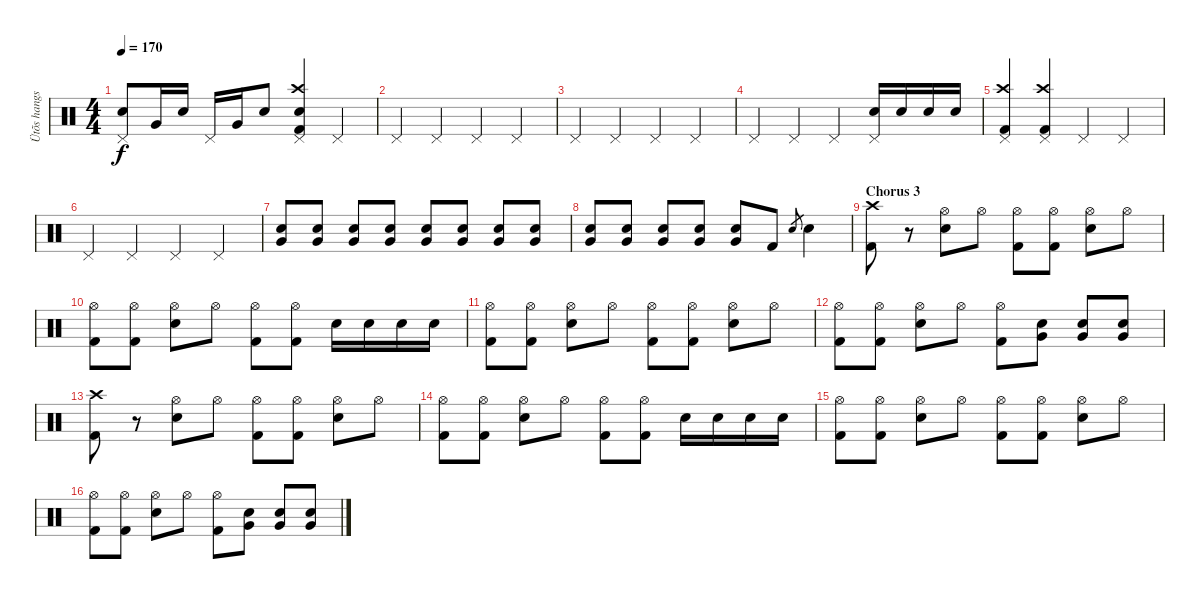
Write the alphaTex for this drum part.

\track ("Ütõs hangszer" "Ütõs hangs") {instrument percussion}
\staff {score}
\articulation defaults
\ts (4 4)
\tempo 170
\clef neutral
\ks c
("Pedal Hi-Hat (hit)" "Electric Snare (hit)").8{dy f} "Very Low Tom (hit)".16 "Electric Snare (hit)".16 "Pedal Hi-Hat (hit)".16 "Very Low Tom (hit)".16 "Electric Snare (hit)".8 ("Crash high (hit)" "Pedal Hi-Hat (hit)" "Electric Snare (hit)" "Kick (hit) 2").4 "Pedal Hi-Hat (hit)".4 |
"Pedal Hi-Hat (hit)".4 "Pedal Hi-Hat (hit)".4 "Pedal Hi-Hat (hit)".4 "Pedal Hi-Hat (hit)".4 |
"Pedal Hi-Hat (hit)".4 "Pedal Hi-Hat (hit)".4 "Pedal Hi-Hat (hit)".4 "Pedal Hi-Hat (hit)".4 |
"Pedal Hi-Hat (hit)".4 "Pedal Hi-Hat (hit)".4 "Pedal Hi-Hat (hit)".4 ("Pedal Hi-Hat (hit)" "Electric Snare (hit)").16 "Electric Snare (hit)".16 "Electric Snare (hit)".16 "Electric Snare (hit)".16 |
("Pedal Hi-Hat (hit)" "Crash high (hit)" "Kick (hit) 2").4 ("Pedal Hi-Hat (hit)" "Crash high (hit)" "Kick (hit) 2").4 "Pedal Hi-Hat (hit)".4 "Pedal Hi-Hat (hit)".4 |
"Pedal Hi-Hat (hit)".4 "Pedal Hi-Hat (hit)".4 "Pedal Hi-Hat (hit)".4 "Pedal Hi-Hat (hit)".4 |
("Very Low Tom (hit)" "Electric Snare (hit)").8 ("Very Low Tom (hit)" "Electric Snare (hit)").8 ("Very Low Tom (hit)" "Electric Snare (hit)").8 ("Very Low Tom (hit)" "Electric Snare (hit)").8 ("Very Low Tom (hit)" "Electric Snare (hit)").8 ("Very Low Tom (hit)" "Electric Snare (hit)").8 ("Very Low Tom (hit)" "Electric Snare (hit)").8 ("Very Low Tom (hit)" "Electric Snare (hit)").8 |
("Very Low Tom (hit)" "Electric Snare (hit)").8 ("Very Low Tom (hit)" "Electric Snare (hit)").8 ("Very Low Tom (hit)" "Electric Snare (hit)").8 ("Very Low Tom (hit)" "Electric Snare (hit)").8 ("Very Low Tom (hit)" "Electric Snare (hit)").8 "Kick (hit) 2".8 "Electric Snare (hit)".8{gr} "Electric Snare (hit)".4 |
\section ("" "Chorus 3")
("Crash high (hit)" "Kick (hit) 2").8 r.8 ("Hi-Hat (open)" "Electric Snare (hit)").8 "Hi-Hat (open)".8 ("Hi-Hat (open)" "Kick (hit) 2").8 ("Hi-Hat (open)" "Kick (hit) 2").8 ("Hi-Hat (open)" "Electric Snare (hit)").8 "Hi-Hat (open)".8 |
("Hi-Hat (open)" "Kick (hit) 2").8 ("Hi-Hat (open)" "Kick (hit) 2").8 ("Hi-Hat (open)" "Electric Snare (hit)").8 "Hi-Hat (open)".8 ("Hi-Hat (open)" "Kick (hit) 2").8 ("Hi-Hat (open)" "Kick (hit) 2").8 "Electric Snare (hit)".16 "Electric Snare (hit)".16 "Electric Snare (hit)".16 "Electric Snare (hit)".16 |
("Hi-Hat (open)" "Kick (hit) 2").8 ("Hi-Hat (open)" "Kick (hit) 2").8 ("Hi-Hat (open)" "Electric Snare (hit)").8 "Hi-Hat (open)".8 ("Hi-Hat (open)" "Kick (hit) 2").8 ("Hi-Hat (open)" "Kick (hit) 2").8 ("Hi-Hat (open)" "Electric Snare (hit)").8 "Hi-Hat (open)".8 |
("Hi-Hat (open)" "Kick (hit) 2").8 ("Hi-Hat (open)" "Kick (hit) 2").8 ("Hi-Hat (open)" "Electric Snare (hit)").8 "Hi-Hat (open)".8 ("Hi-Hat (open)" "Kick (hit) 2").8 ("Very Low Tom (hit)" "Electric Snare (hit)").8 ("Very Low Tom (hit)" "Electric Snare (hit)").8 ("Very Low Tom (hit)" "Electric Snare (hit)").8 |
("Crash high (hit)" "Kick (hit) 2").8 r.8 ("Hi-Hat (open)" "Electric Snare (hit)").8 "Hi-Hat (open)".8 ("Hi-Hat (open)" "Kick (hit) 2").8 ("Hi-Hat (open)" "Kick (hit) 2").8 ("Hi-Hat (open)" "Electric Snare (hit)").8 "Hi-Hat (open)".8 |
("Hi-Hat (open)" "Kick (hit) 2").8 ("Hi-Hat (open)" "Kick (hit) 2").8 ("Hi-Hat (open)" "Electric Snare (hit)").8 "Hi-Hat (open)".8 ("Hi-Hat (open)" "Kick (hit) 2").8 ("Hi-Hat (open)" "Kick (hit) 2").8 "Electric Snare (hit)".16 "Electric Snare (hit)".16 "Electric Snare (hit)".16 "Electric Snare (hit)".16 |
("Hi-Hat (open)" "Kick (hit) 2").8 ("Hi-Hat (open)" "Kick (hit) 2").8 ("Hi-Hat (open)" "Electric Snare (hit)").8 "Hi-Hat (open)".8 ("Hi-Hat (open)" "Kick (hit) 2").8 ("Hi-Hat (open)" "Kick (hit) 2").8 ("Hi-Hat (open)" "Electric Snare (hit)").8 "Hi-Hat (open)".8 |
("Hi-Hat (open)" "Kick (hit) 2").8 ("Hi-Hat (open)" "Kick (hit) 2").8 ("Hi-Hat (open)" "Electric Snare (hit)").8 "Hi-Hat (open)".8 ("Hi-Hat (open)" "Kick (hit) 2").8 ("Very Low Tom (hit)" "Electric Snare (hit)").8 ("Very Low Tom (hit)" "Electric Snare (hit)").8 ("Very Low Tom (hit)" "Electric Snare (hit)").8
